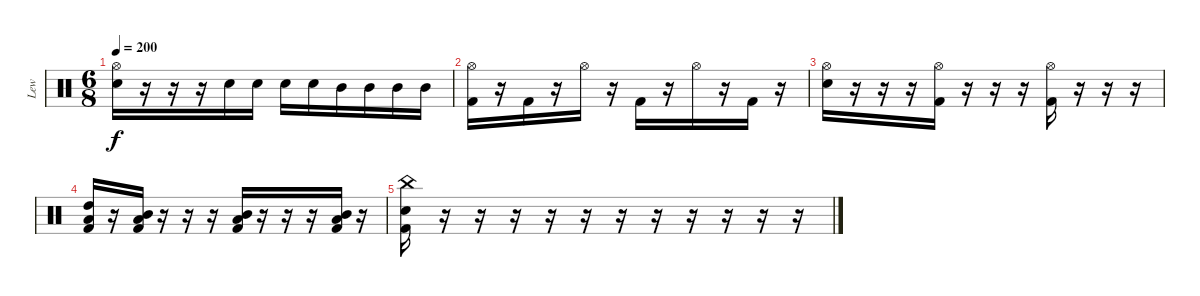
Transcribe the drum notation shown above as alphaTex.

\track ("Lew" "Lew") {instrument percussion}
\staff {score}
\articulation defaults
\ts (6 8)
\tempo 200
\clef neutral
\ks c
("Hi-Hat (open)" "Electric Snare (hit)").16{dy f} r.16 r.16 r.16 "Electric Snare (hit)".16 "Electric Snare (hit)".16 "Electric Snare (hit)".16 "Electric Snare (hit)".16 "Mid Tom (hit)".16 "Mid Tom (hit)".16 "Mid Tom (hit)".16 "Mid Tom (hit)".16 |
("Hi-Hat (open)" "Kick (hit) 2").16 r.16 "Kick (hit) 2".16 r.16 "Hi-Hat (open)".16 r.16 "Kick (hit) 2".16 r.16 "Hi-Hat (open)".16 r.16 "Kick (hit) 2".16 r.16 |
("Hi-Hat (open)" "Electric Snare (hit)").16 r.16 r.16 r.16 ("Hi-Hat (open)" "Kick (hit) 2").16 r.16 r.16 r.16 ("Hi-Hat (open)" "Kick (hit) 2").16 r.16 r.16 r.16 |
("Low Tom (hit)" "High Tom (hit)" "Kick (hit) 2").16 r.16 ("Low Tom (hit)" "Mid Tom (hit)" "Kick (hit) 2").16 r.16 r.16 r.16 ("Low Tom (hit)" "Mid Tom (hit)" "Kick (hit) 2").16 r.16 r.16 r.16 ("Low Tom (hit)" "Mid Tom (hit)" "Kick (hit) 2").16 r.16 |
("China (hit)" "Electric Snare (hit)" "Kick (hit) 2").16 r.16 r.16 r.16 r.16 r.16 r.16 r.16 r.16 r.16 r.16 r.16
